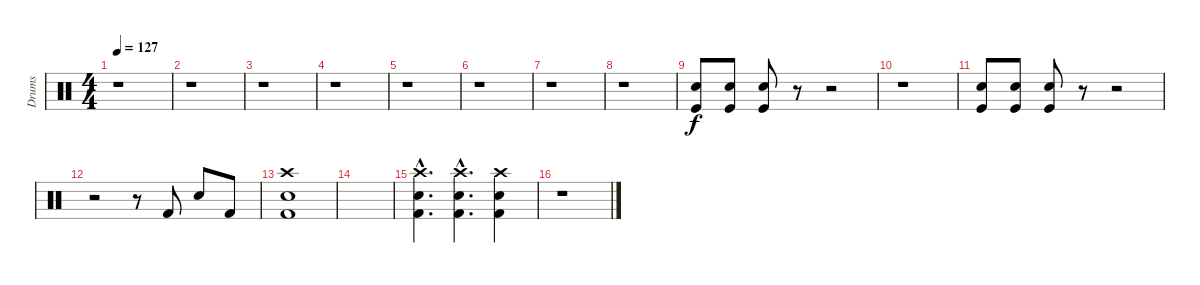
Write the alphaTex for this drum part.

\track ("Drums" "Drums") {instrument percussion}
\staff {score}
\articulation defaults
\ts (4 4)
\tempo 127
\clef neutral
\ks c
r.1{dy f} |
r.1 |
r.1 |
r.1 |
r.1 |
r.1 |
r.1 |
r.1 |
("Electric Snare (hit)" "Kick (hit)").8 ("Electric Snare (hit)" "Kick (hit)").8 ("Electric Snare (hit)" "Kick (hit)").8 r.8 r.2 |
r.1 |
("Electric Snare (hit)" "Kick (hit)").8 ("Electric Snare (hit)" "Kick (hit)").8 ("Electric Snare (hit)" "Kick (hit)").8 r.8 r.2 |
r.2 r.8 "Kick (hit) 2".8 "Electric Snare (hit)".8 "Kick (hit) 2".8 |
("Crash high (hit)" "Electric Snare (hit)" "Kick (hit) 2").1 |
|
("Crash high (hit)"{hac} "Electric Snare (hit)"{hac} "Kick (hit) 2"{hac}).4{d} ("Crash high (hit)"{hac} "Electric Snare (hit)"{hac} "Kick (hit) 2"{hac}).4{d} ("Crash high (hit)" "Electric Snare (hit)" "Kick (hit) 2").4 |
r.1
